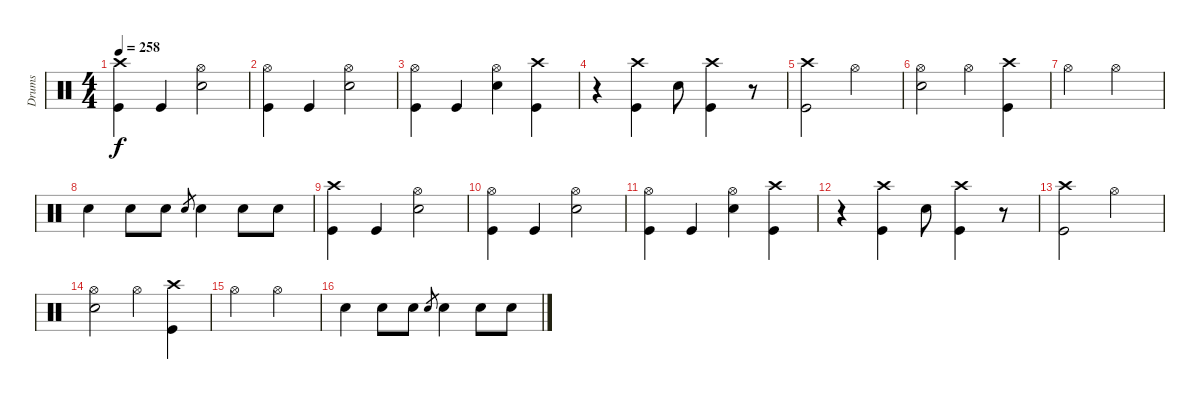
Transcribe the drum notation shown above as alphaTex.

\track ("Drums" "Drums") {instrument percussion}
\staff {score}
\articulation defaults
\ts (4 4)
\tempo 258
\clef neutral
\ks c
("Crash high (hit)" "Kick (hit)").4{dy f} "Kick (hit)".4 ("Hi-Hat (open)" "Electric Snare (hit)").2 |
("Hi-Hat (open)" "Kick (hit)").4 "Kick (hit)".4 ("Hi-Hat (open)" "Electric Snare (hit)").2 |
("Hi-Hat (open)" "Kick (hit)").4 "Kick (hit)".4 ("Hi-Hat (open)" "Electric Snare (hit)").4 ("Crash high (hit)" "Kick (hit)").4 |
r.4 ("Crash high (hit)" "Kick (hit)").4 "Electric Snare (hit)".8 ("Crash high (hit)" "Kick (hit)").4 r.8 |
("Crash high (hit)" "Kick (hit)").2 "Hi-Hat (open)".2 |
("Hi-Hat (open)" "Electric Snare (hit)").2 "Hi-Hat (open)".4 ("Crash high (hit)" "Kick (hit)").4 |
"Hi-Hat (open)".2 "Hi-Hat (open)".2 |
"Electric Snare (hit)".4 "Electric Snare (hit)".8 "Electric Snare (hit)".8 "Electric Snare (hit)".8{gr} "Electric Snare (hit)".4 "Electric Snare (hit)".8 "Electric Snare (hit)".8 |
("Crash high (hit)" "Kick (hit)").4 "Kick (hit)".4 ("Hi-Hat (open)" "Electric Snare (hit)").2 |
("Hi-Hat (open)" "Kick (hit)").4 "Kick (hit)".4 ("Hi-Hat (open)" "Electric Snare (hit)").2 |
("Hi-Hat (open)" "Kick (hit)").4 "Kick (hit)".4 ("Hi-Hat (open)" "Electric Snare (hit)").4 ("Crash high (hit)" "Kick (hit)").4 |
r.4 ("Crash high (hit)" "Kick (hit)").4 "Electric Snare (hit)".8 ("Crash high (hit)" "Kick (hit)").4 r.8 |
("Crash high (hit)" "Kick (hit)").2 "Hi-Hat (open)".2 |
("Hi-Hat (open)" "Electric Snare (hit)").2 "Hi-Hat (open)".4 ("Crash high (hit)" "Kick (hit)").4 |
"Hi-Hat (open)".2 "Hi-Hat (open)".2 |
"Electric Snare (hit)".4 "Electric Snare (hit)".8 "Electric Snare (hit)".8 "Electric Snare (hit)".8{gr} "Electric Snare (hit)".4 "Electric Snare (hit)".8 "Electric Snare (hit)".8
